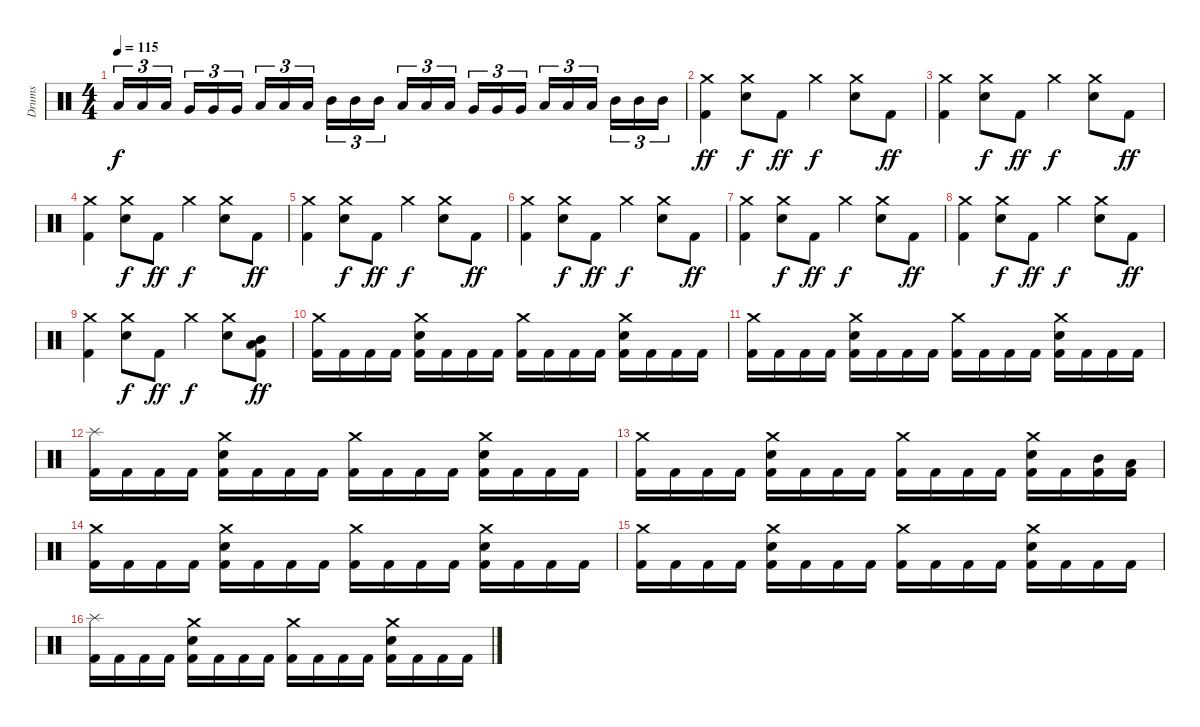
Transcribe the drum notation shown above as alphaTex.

\track ("Drums" "Drums") {instrument percussion}
\staff {score}
\articulation defaults
\ts (4 4)
\tempo 115
\clef neutral
\ks c "Low Floor Tom (hit)".16{tu (3 2) dy f} "Low Floor Tom (hit)".16{tu (3 2)} "Low Floor Tom (hit)".16{tu (3 2)} "Very Low Tom (hit)".16{tu (3 2)} "Very Low Tom (hit)".16{tu (3 2)} "Very Low Tom (hit)".16{tu (3 2)} "Low Tom (hit)".16{tu (3 2)} "Low Tom (hit)".16{tu (3 2)} "Low Tom (hit)".16{tu (3 2)} "Mid Tom (hit)".16{tu (3 2)} "Mid Tom (hit)".16{tu (3 2)} "Mid Tom (hit)".16{tu (3 2)} "Low Tom (hit)".16{tu (3 2)} "Low Tom (hit)".16{tu (3 2)} "Low Tom (hit)".16{tu (3 2)} "Very Low Tom (hit)".16{tu (3 2)} "Very Low Tom (hit)".16{tu (3 2)} "Very Low Tom (hit)".16{tu (3 2)} "Low Tom (hit)".16{tu (3 2)} "Low Tom (hit)".16{tu (3 2)} "Low Tom (hit)".16{tu (3 2)} "Mid Tom (hit)".16{tu (3 2)} "Mid Tom (hit)".16{tu (3 2)} "Mid Tom (hit)".16{tu (3 2)}
|
("Crash medium (hit)" "Kick (hit) 2").4{dy ff} ("Crash medium (hit)" "Electric Snare (hit)").8{dy f} "Kick (hit) 2".8{dy ff} "Crash medium (hit)".4{dy f} ("Crash medium (hit)" "Electric Snare (hit)").8 "Kick (hit) 2".8{dy ff} |
("Crash medium (hit)" "Kick (hit) 2").4 ("Crash medium (hit)" "Electric Snare (hit)").8{dy f} "Kick (hit) 2".8{dy ff} "Crash medium (hit)".4{dy f} ("Crash medium (hit)" "Electric Snare (hit)").8 "Kick (hit) 2".8{dy ff} |
("Crash medium (hit)" "Kick (hit) 2").4 ("Crash medium (hit)" "Electric Snare (hit)").8{dy f} "Kick (hit) 2".8{dy ff} "Crash medium (hit)".4{dy f} ("Crash medium (hit)" "Electric Snare (hit)").8 "Kick (hit) 2".8{dy ff} |
("Crash medium (hit)" "Kick (hit) 2").4 ("Crash medium (hit)" "Electric Snare (hit)").8{dy f} "Kick (hit) 2".8{dy ff} "Crash medium (hit)".4{dy f} ("Crash medium (hit)" "Electric Snare (hit)").8 "Kick (hit) 2".8{dy ff} |
("Crash medium (hit)" "Kick (hit) 2").4 ("Crash medium (hit)" "Electric Snare (hit)").8{dy f} "Kick (hit) 2".8{dy ff} "Crash medium (hit)".4{dy f} ("Crash medium (hit)" "Electric Snare (hit)").8 "Kick (hit) 2".8{dy ff} |
("Crash medium (hit)" "Kick (hit) 2").4 ("Crash medium (hit)" "Electric Snare (hit)").8{dy f} "Kick (hit) 2".8{dy ff} "Crash medium (hit)".4{dy f} ("Crash medium (hit)" "Electric Snare (hit)").8 "Kick (hit) 2".8{dy ff} |
("Crash medium (hit)" "Kick (hit) 2").4 ("Crash medium (hit)" "Electric Snare (hit)").8{dy f} "Kick (hit) 2".8{dy ff} "Crash medium (hit)".4{dy f} ("Crash medium (hit)" "Electric Snare (hit)").8 "Kick (hit) 2".8{dy ff} |
("Crash medium (hit)" "Kick (hit) 2").4 ("Crash medium (hit)" "Electric Snare (hit)").8{dy f} "Kick (hit) 2".8{dy ff} "Crash medium (hit)".4{dy f} ("Crash medium (hit)" "Electric Snare (hit)").8 ("Mid Tom (hit)" "Low Tom (hit)" "Kick (hit) 2").8{dy ff} |
("Crash medium (hit)" "Kick (hit) 2").16 "Kick (hit) 2".16 "Kick (hit) 2".16 "Kick (hit) 2".16 ("Crash medium (hit)" "Electric Snare (hit)" "Kick (hit) 2").16 "Kick (hit) 2".16 "Kick (hit) 2".16 "Kick (hit) 2".16 ("Crash medium (hit)" "Kick (hit) 2").16 "Kick (hit) 2".16 "Kick (hit) 2".16 "Kick (hit) 2".16 ("Crash medium (hit)" "Electric Snare (hit)" "Kick (hit) 2").16 "Kick (hit) 2".16 "Kick (hit) 2".16 "Kick (hit) 2".16 |
("Crash medium (hit)" "Kick (hit) 2").16 "Kick (hit) 2".16 "Kick (hit) 2".16 "Kick (hit) 2".16 ("Crash medium (hit)" "Electric Snare (hit)" "Kick (hit) 2").16 "Kick (hit) 2".16 "Kick (hit) 2".16 "Kick (hit) 2".16 ("Crash medium (hit)" "Kick (hit) 2").16 "Kick (hit) 2".16 "Kick (hit) 2".16 "Kick (hit) 2".16 ("Crash medium (hit)" "Electric Snare (hit)" "Kick (hit) 2").16 "Kick (hit) 2".16 "Kick (hit) 2".16 "Kick (hit) 2".16 |
("Splash (hit)" "Kick (hit) 2").16 "Kick (hit) 2".16 "Kick (hit) 2".16 "Kick (hit) 2".16 ("Crash medium (hit)" "Electric Snare (hit)" "Kick (hit) 2").16 "Kick (hit) 2".16 "Kick (hit) 2".16 "Kick (hit) 2".16 ("Crash medium (hit)" "Kick (hit) 2").16 "Kick (hit) 2".16 "Kick (hit) 2".16 "Kick (hit) 2".16 ("Crash medium (hit)" "Electric Snare (hit)" "Kick (hit) 2").16 "Kick (hit) 2".16 "Kick (hit) 2".16 "Kick (hit) 2".16 |
("Crash medium (hit)" "Kick (hit) 2").16 "Kick (hit) 2".16 "Kick (hit) 2".16 "Kick (hit) 2".16 ("Crash medium (hit)" "Electric Snare (hit)" "Kick (hit) 2").16 "Kick (hit) 2".16 "Kick (hit) 2".16 "Kick (hit) 2".16 ("Crash medium (hit)" "Kick (hit) 2").16 "Kick (hit) 2".16 "Kick (hit) 2".16 "Kick (hit) 2".16 ("Crash medium (hit)" "Electric Snare (hit)" "Kick (hit) 2").16 "Kick (hit) 2".16 ("Mid Tom (hit)" "Kick (hit) 2").16 ("Low Tom (hit)" "Kick (hit) 2").16 |
("Crash medium (hit)" "Kick (hit) 2").16 "Kick (hit) 2".16 "Kick (hit) 2".16 "Kick (hit) 2".16 ("Crash medium (hit)" "Electric Snare (hit)" "Kick (hit) 2").16 "Kick (hit) 2".16 "Kick (hit) 2".16 "Kick (hit) 2".16 ("Crash medium (hit)" "Kick (hit) 2").16 "Kick (hit) 2".16 "Kick (hit) 2".16 "Kick (hit) 2".16 ("Crash medium (hit)" "Electric Snare (hit)" "Kick (hit) 2").16 "Kick (hit) 2".16 "Kick (hit) 2".16 "Kick (hit) 2".16 |
("Crash medium (hit)" "Kick (hit) 2").16 "Kick (hit) 2".16 "Kick (hit) 2".16 "Kick (hit) 2".16 ("Crash medium (hit)" "Electric Snare (hit)" "Kick (hit) 2").16 "Kick (hit) 2".16 "Kick (hit) 2".16 "Kick (hit) 2".16 ("Crash medium (hit)" "Kick (hit) 2").16 "Kick (hit) 2".16 "Kick (hit) 2".16 "Kick (hit) 2".16 ("Crash medium (hit)" "Electric Snare (hit)" "Kick (hit) 2").16 "Kick (hit) 2".16 "Kick (hit) 2".16 "Kick (hit) 2".16 |
("Splash (hit)" "Kick (hit) 2").16 "Kick (hit) 2".16 "Kick (hit) 2".16 "Kick (hit) 2".16 ("Crash medium (hit)" "Electric Snare (hit)" "Kick (hit) 2").16 "Kick (hit) 2".16 "Kick (hit) 2".16 "Kick (hit) 2".16 ("Crash medium (hit)" "Kick (hit) 2").16 "Kick (hit) 2".16 "Kick (hit) 2".16 "Kick (hit) 2".16 ("Crash medium (hit)" "Electric Snare (hit)" "Kick (hit) 2").16 "Kick (hit) 2".16 "Kick (hit) 2".16 "Kick (hit) 2".16
